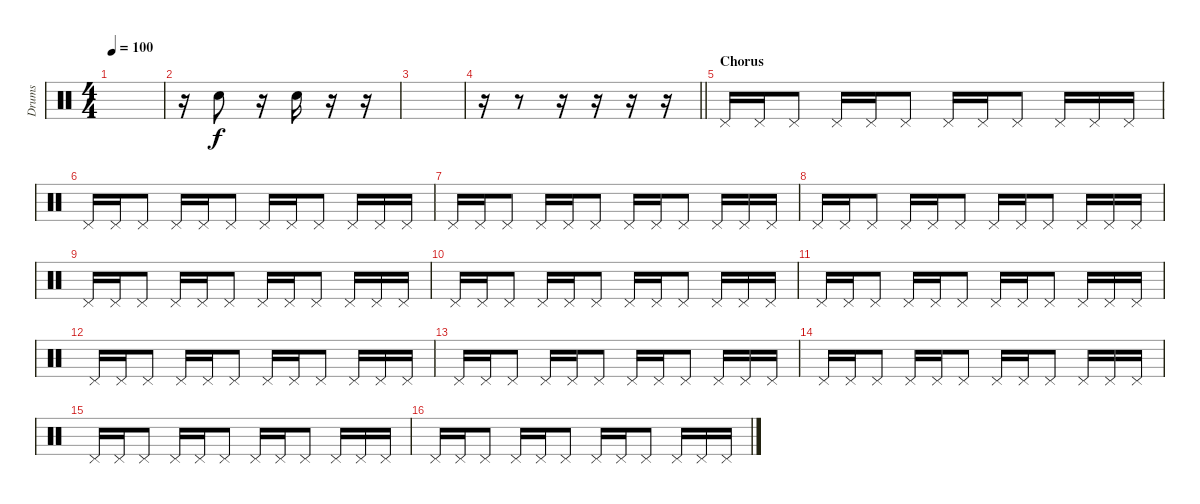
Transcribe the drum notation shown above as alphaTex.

\track ("Drums" "Drums") {instrument percussion}
\staff {score}
\articulation defaults
\ts (4 4)
\tempo 100
\clef neutral
\ks c
|
r.16 "Electric Snare (hit)".8 r.16 "Electric Snare (hit)".16 r.16 r.16 |
|
\barLineRight lightlight
r.16 r.8 r.16 r.16 r.16 r.16 |
\section ("" "Chorus")
"Pedal Hi-Hat (hit)".16 "Pedal Hi-Hat (hit)".16 "Pedal Hi-Hat (hit)".8 "Pedal Hi-Hat (hit)".16 "Pedal Hi-Hat (hit)".16 "Pedal Hi-Hat (hit)".8 "Pedal Hi-Hat (hit)".16 "Pedal Hi-Hat (hit)".16 "Pedal Hi-Hat (hit)".8 "Pedal Hi-Hat (hit)".16 "Pedal Hi-Hat (hit)".16 "Pedal Hi-Hat (hit)".16 |
"Pedal Hi-Hat (hit)".16 "Pedal Hi-Hat (hit)".16 "Pedal Hi-Hat (hit)".8 "Pedal Hi-Hat (hit)".16 "Pedal Hi-Hat (hit)".16 "Pedal Hi-Hat (hit)".8 "Pedal Hi-Hat (hit)".16 "Pedal Hi-Hat (hit)".16 "Pedal Hi-Hat (hit)".8 "Pedal Hi-Hat (hit)".16 "Pedal Hi-Hat (hit)".16 "Pedal Hi-Hat (hit)".16 |
"Pedal Hi-Hat (hit)".16 "Pedal Hi-Hat (hit)".16 "Pedal Hi-Hat (hit)".8 "Pedal Hi-Hat (hit)".16 "Pedal Hi-Hat (hit)".16 "Pedal Hi-Hat (hit)".8 "Pedal Hi-Hat (hit)".16 "Pedal Hi-Hat (hit)".16 "Pedal Hi-Hat (hit)".8 "Pedal Hi-Hat (hit)".16 "Pedal Hi-Hat (hit)".16 "Pedal Hi-Hat (hit)".16 |
"Pedal Hi-Hat (hit)".16 "Pedal Hi-Hat (hit)".16 "Pedal Hi-Hat (hit)".8 "Pedal Hi-Hat (hit)".16 "Pedal Hi-Hat (hit)".16 "Pedal Hi-Hat (hit)".8 "Pedal Hi-Hat (hit)".16 "Pedal Hi-Hat (hit)".16 "Pedal Hi-Hat (hit)".8 "Pedal Hi-Hat (hit)".16 "Pedal Hi-Hat (hit)".16 "Pedal Hi-Hat (hit)".16 |
"Pedal Hi-Hat (hit)".16 "Pedal Hi-Hat (hit)".16 "Pedal Hi-Hat (hit)".8 "Pedal Hi-Hat (hit)".16 "Pedal Hi-Hat (hit)".16 "Pedal Hi-Hat (hit)".8 "Pedal Hi-Hat (hit)".16 "Pedal Hi-Hat (hit)".16 "Pedal Hi-Hat (hit)".8 "Pedal Hi-Hat (hit)".16 "Pedal Hi-Hat (hit)".16 "Pedal Hi-Hat (hit)".16 |
"Pedal Hi-Hat (hit)".16 "Pedal Hi-Hat (hit)".16 "Pedal Hi-Hat (hit)".8 "Pedal Hi-Hat (hit)".16 "Pedal Hi-Hat (hit)".16 "Pedal Hi-Hat (hit)".8 "Pedal Hi-Hat (hit)".16 "Pedal Hi-Hat (hit)".16 "Pedal Hi-Hat (hit)".8 "Pedal Hi-Hat (hit)".16 "Pedal Hi-Hat (hit)".16 "Pedal Hi-Hat (hit)".16 |
"Pedal Hi-Hat (hit)".16 "Pedal Hi-Hat (hit)".16 "Pedal Hi-Hat (hit)".8 "Pedal Hi-Hat (hit)".16 "Pedal Hi-Hat (hit)".16 "Pedal Hi-Hat (hit)".8 "Pedal Hi-Hat (hit)".16 "Pedal Hi-Hat (hit)".16 "Pedal Hi-Hat (hit)".8 "Pedal Hi-Hat (hit)".16 "Pedal Hi-Hat (hit)".16 "Pedal Hi-Hat (hit)".16 |
"Pedal Hi-Hat (hit)".16 "Pedal Hi-Hat (hit)".16 "Pedal Hi-Hat (hit)".8 "Pedal Hi-Hat (hit)".16 "Pedal Hi-Hat (hit)".16 "Pedal Hi-Hat (hit)".8 "Pedal Hi-Hat (hit)".16 "Pedal Hi-Hat (hit)".16 "Pedal Hi-Hat (hit)".8 "Pedal Hi-Hat (hit)".16 "Pedal Hi-Hat (hit)".16 "Pedal Hi-Hat (hit)".16 |
"Pedal Hi-Hat (hit)".16 "Pedal Hi-Hat (hit)".16 "Pedal Hi-Hat (hit)".8 "Pedal Hi-Hat (hit)".16 "Pedal Hi-Hat (hit)".16 "Pedal Hi-Hat (hit)".8 "Pedal Hi-Hat (hit)".16 "Pedal Hi-Hat (hit)".16 "Pedal Hi-Hat (hit)".8 "Pedal Hi-Hat (hit)".16 "Pedal Hi-Hat (hit)".16 "Pedal Hi-Hat (hit)".16 |
"Pedal Hi-Hat (hit)".16 "Pedal Hi-Hat (hit)".16 "Pedal Hi-Hat (hit)".8 "Pedal Hi-Hat (hit)".16 "Pedal Hi-Hat (hit)".16 "Pedal Hi-Hat (hit)".8 "Pedal Hi-Hat (hit)".16 "Pedal Hi-Hat (hit)".16 "Pedal Hi-Hat (hit)".8 "Pedal Hi-Hat (hit)".16 "Pedal Hi-Hat (hit)".16 "Pedal Hi-Hat (hit)".16 |
"Pedal Hi-Hat (hit)".16 "Pedal Hi-Hat (hit)".16 "Pedal Hi-Hat (hit)".8 "Pedal Hi-Hat (hit)".16 "Pedal Hi-Hat (hit)".16 "Pedal Hi-Hat (hit)".8 "Pedal Hi-Hat (hit)".16 "Pedal Hi-Hat (hit)".16 "Pedal Hi-Hat (hit)".8 "Pedal Hi-Hat (hit)".16 "Pedal Hi-Hat (hit)".16 "Pedal Hi-Hat (hit)".16 |
"Pedal Hi-Hat (hit)".16 "Pedal Hi-Hat (hit)".16 "Pedal Hi-Hat (hit)".8 "Pedal Hi-Hat (hit)".16 "Pedal Hi-Hat (hit)".16 "Pedal Hi-Hat (hit)".8 "Pedal Hi-Hat (hit)".16 "Pedal Hi-Hat (hit)".16 "Pedal Hi-Hat (hit)".8 "Pedal Hi-Hat (hit)".16 "Pedal Hi-Hat (hit)".16 "Pedal Hi-Hat (hit)".16
